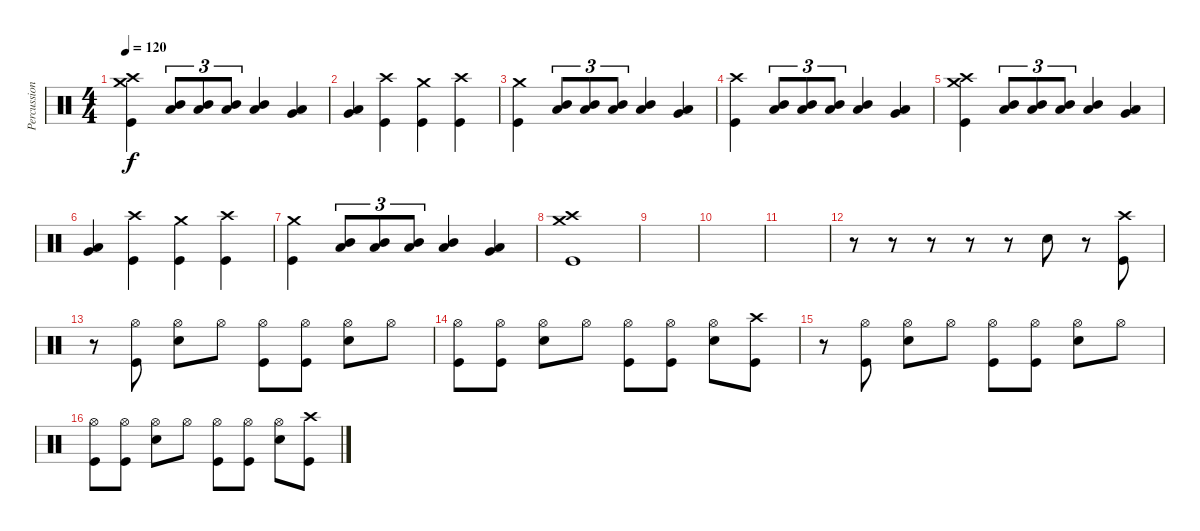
\track ("Percussion" "Percussion") {instrument percussion}
\staff {score}
\articulation defaults
\ts (4 4)
\tempo 120
\clef neutral
\ks c
("Crash high (hit)" "Crash medium (hit)" "Kick (hit)").4{dy f} ("Mid Tom (hit)" "Low Tom (hit)").8{tu (3 2)} ("Mid Tom (hit)" "Low Tom (hit)").8{tu (3 2)} ("Mid Tom (hit)" "Low Tom (hit)").8{tu (3 2)} ("Mid Tom (hit)" "Low Tom (hit)").4 ("Low Tom (hit)" "Very Low Tom (hit)").4 |
("Low Tom (hit)" "Very Low Tom (hit)").4 ("Crash high (hit)" "Kick (hit)").4 ("Crash medium (hit)" "Kick (hit)").4 ("Crash high (hit)" "Kick (hit)").4 |
("Crash medium (hit)" "Kick (hit)").4 ("Mid Tom (hit)" "Low Tom (hit)").8{tu (3 2)} ("Mid Tom (hit)" "Low Tom (hit)").8{tu (3 2)} ("Mid Tom (hit)" "Low Tom (hit)").8{tu (3 2)} ("Mid Tom (hit)" "Low Tom (hit)").4 ("Low Tom (hit)" "Very Low Tom (hit)").4 |
("Crash high (hit)" "Kick (hit)").4 ("Mid Tom (hit)" "Low Tom (hit)").8{tu (3 2)} ("Mid Tom (hit)" "Low Tom (hit)").8{tu (3 2)} ("Mid Tom (hit)" "Low Tom (hit)").8{tu (3 2)} ("Mid Tom (hit)" "Low Tom (hit)").4 ("Low Tom (hit)" "Very Low Tom (hit)").4 |
("Crash high (hit)" "Crash medium (hit)" "Kick (hit)").4 ("Mid Tom (hit)" "Low Tom (hit)").8{tu (3 2)} ("Mid Tom (hit)" "Low Tom (hit)").8{tu (3 2)} ("Mid Tom (hit)" "Low Tom (hit)").8{tu (3 2)} ("Mid Tom (hit)" "Low Tom (hit)").4 ("Low Tom (hit)" "Very Low Tom (hit)").4 |
("Low Tom (hit)" "Very Low Tom (hit)").4 ("Crash high (hit)" "Kick (hit)").4 ("Crash medium (hit)" "Kick (hit)").4 ("Crash high (hit)" "Kick (hit)").4 |
("Crash medium (hit)" "Kick (hit)").4 ("Mid Tom (hit)" "Low Tom (hit)").8{tu (3 2)} ("Mid Tom (hit)" "Low Tom (hit)").8{tu (3 2)} ("Mid Tom (hit)" "Low Tom (hit)").8{tu (3 2)} ("Mid Tom (hit)" "Low Tom (hit)").4 ("Low Tom (hit)" "Very Low Tom (hit)").4 |
("Crash high (hit)" "Crash medium (hit)" "Kick (hit)").1 |
|
|
|
r.8 r.8 r.8 r.8 r.8 "Snare (hit) 2".8 r.8 ("Crash high (hit)" "Kick (hit)").8 |
r.8 ("Hi-Hat (open)" "Kick (hit)").8 ("Hi-Hat (open)" "Snare (hit) 2").8 "Hi-Hat (open)".8 ("Hi-Hat (open)" "Kick (hit)").8 ("Hi-Hat (open)" "Kick (hit)").8 ("Hi-Hat (open)" "Snare (hit) 2").8 "Hi-Hat (open)".8 |
("Hi-Hat (open)" "Kick (hit)").8 ("Hi-Hat (open)" "Kick (hit)").8 ("Hi-Hat (open)" "Snare (hit) 2").8 "Hi-Hat (open)".8 ("Hi-Hat (open)" "Kick (hit)").8 ("Hi-Hat (open)" "Kick (hit)").8 ("Hi-Hat (open)" "Snare (hit) 2").8 ("Crash high (hit)" "Kick (hit)").8 |
r.8 ("Hi-Hat (open)" "Kick (hit)").8 ("Hi-Hat (open)" "Snare (hit) 2").8 "Hi-Hat (open)".8 ("Hi-Hat (open)" "Kick (hit)").8 ("Hi-Hat (open)" "Kick (hit)").8 ("Hi-Hat (open)" "Snare (hit) 2").8 "Hi-Hat (open)".8 |
("Hi-Hat (open)" "Kick (hit)").8 ("Hi-Hat (open)" "Kick (hit)").8 ("Hi-Hat (open)" "Snare (hit) 2").8 "Hi-Hat (open)".8 ("Hi-Hat (open)" "Kick (hit)").8 ("Hi-Hat (open)" "Kick (hit)").8 ("Hi-Hat (open)" "Snare (hit) 2").8 ("Crash high (hit)" "Kick (hit)").8
